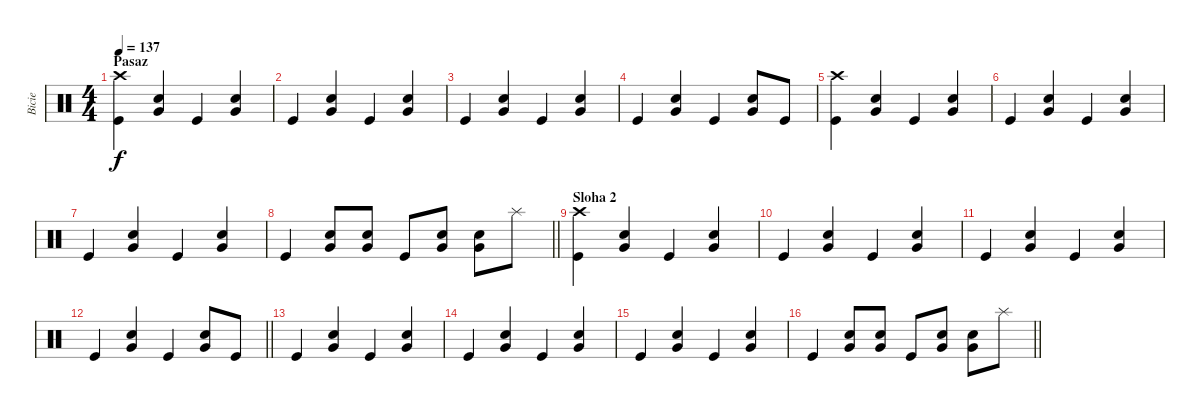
\track ("Bicie" "Bicie") {instrument percussion}
\staff {score}
\articulation defaults
\ts (4 4)
\section ("" "Pasaz")
\tempo 137
\clef neutral
\ks c
("Crash high (hit)" "Kick (hit)").4{dy f} ("Very Low Tom (hit)" "Snare (hit) 2").4 "Kick (hit)".4 ("Very Low Tom (hit)" "Snare (hit) 2").4 |
"Kick (hit)".4 ("Very Low Tom (hit)" "Snare (hit) 2").4 "Kick (hit)".4 ("Very Low Tom (hit)" "Snare (hit) 2").4 |
"Kick (hit)".4 ("Very Low Tom (hit)" "Snare (hit) 2").4 "Kick (hit)".4 ("Very Low Tom (hit)" "Snare (hit) 2").4 |
"Kick (hit)".4 ("Very Low Tom (hit)" "Snare (hit) 2").4 "Kick (hit)".4 ("Very Low Tom (hit)" "Snare (hit) 2").8 "Kick (hit)".8 |
("Crash high (hit)" "Kick (hit)").4 ("Very Low Tom (hit)" "Snare (hit) 2").4 "Kick (hit)".4 ("Very Low Tom (hit)" "Snare (hit) 2").4 |
"Kick (hit)".4 ("Very Low Tom (hit)" "Snare (hit) 2").4 "Kick (hit)".4 ("Very Low Tom (hit)" "Snare (hit) 2").4 |
"Kick (hit)".4 ("Very Low Tom (hit)" "Snare (hit) 2").4 "Kick (hit)".4 ("Very Low Tom (hit)" "Snare (hit) 2").4 |
\barLineRight lightlight "Kick (hit)".4
("Very Low Tom (hit)" "Snare (hit) 2").8 ("Very Low Tom (hit)" "Snare (hit) 2").8 "Kick (hit)".8 ("Very Low Tom (hit)" "Snare (hit) 2").8 ("Very Low Tom (hit)" "Snare (hit) 2").8 "Splash (hit)".8 |
\section ("" "Sloha 2")
("Crash high (hit)" "Kick (hit)").4 ("Very Low Tom (hit)" "Snare (hit) 2").4 "Kick (hit)".4 ("Very Low Tom (hit)" "Snare (hit) 2").4 |
"Kick (hit)".4 ("Very Low Tom (hit)" "Snare (hit) 2").4 "Kick (hit)".4 ("Very Low Tom (hit)" "Snare (hit) 2").4 |
"Kick (hit)".4 ("Very Low Tom (hit)" "Snare (hit) 2").4 "Kick (hit)".4 ("Very Low Tom (hit)" "Snare (hit) 2").4 |
\barLineRight lightlight "Kick (hit)".4
("Very Low Tom (hit)" "Snare (hit) 2").4 "Kick (hit)".4 ("Very Low Tom (hit)" "Snare (hit) 2").8 "Kick (hit)".8 |
"Kick (hit)".4 ("Very Low Tom (hit)" "Snare (hit) 2").4 "Kick (hit)".4 ("Very Low Tom (hit)" "Snare (hit) 2").4 |
"Kick (hit)".4 ("Very Low Tom (hit)" "Snare (hit) 2").4 "Kick (hit)".4 ("Very Low Tom (hit)" "Snare (hit) 2").4 |
"Kick (hit)".4 ("Very Low Tom (hit)" "Snare (hit) 2").4 "Kick (hit)".4 ("Very Low Tom (hit)" "Snare (hit) 2").4 |
\barLineRight lightlight "Kick (hit)".4
("Very Low Tom (hit)" "Snare (hit) 2").8 ("Very Low Tom (hit)" "Snare (hit) 2").8 "Kick (hit)".8 ("Very Low Tom (hit)" "Snare (hit) 2").8 ("Very Low Tom (hit)" "Snare (hit) 2").8 "Splash (hit)".8
